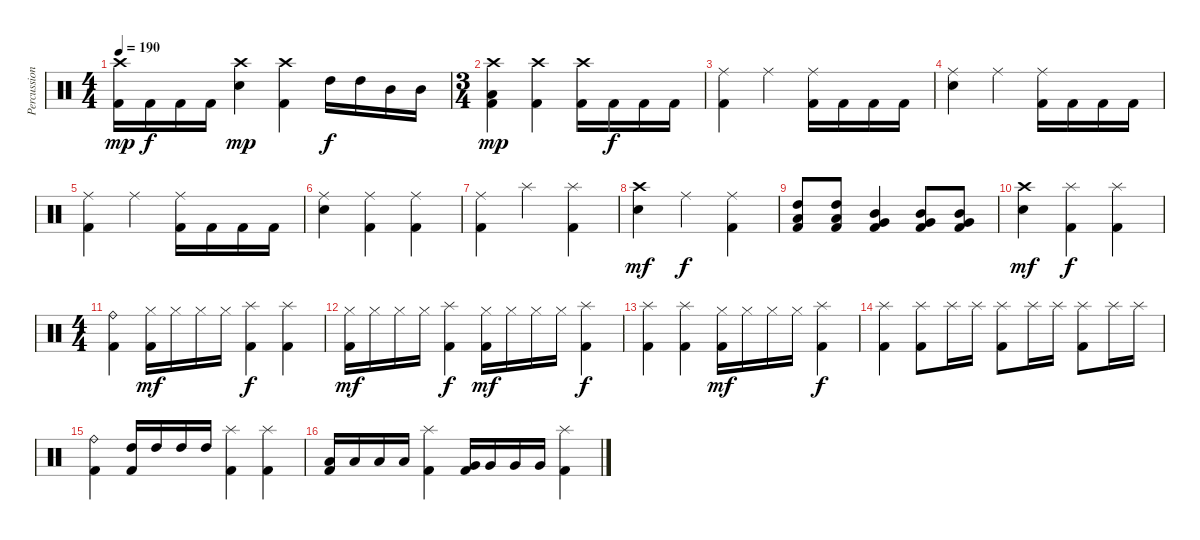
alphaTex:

\track ("Percussion" "Percussion") {instrument percussion}
\staff {score}
\articulation defaults
\ts (4 4)
\tempo 190
\clef neutral
\ks c
("Crash high (hit)" "Kick (hit) 2").16{dy mp} "Kick (hit) 2".16{dy f} "Kick (hit) 2".16 "Kick (hit) 2".16 ("Crash high (hit)" "Electric Snare (hit)").4{dy mp} ("Crash high (hit)" "Kick (hit) 2").4 "High Tom (hit)".16{dy f} "High Tom (hit)".16 "Mid Tom (hit)".16 "Mid Tom (hit)".16 |
\ts (3 4)
("Crash high (hit)" "Low Tom (hit)" "Kick (hit) 2").4{dy mp} ("Crash high (hit)" "Kick (hit) 2").4 ("Crash high (hit)" "Kick (hit) 2").16 "Kick (hit) 2".16{dy f} "Kick (hit) 2".16 "Kick (hit) 2".16 |
("Ride (middle)" "Kick (hit) 2").4 "Ride (middle)".4 ("Ride (middle)" "Kick (hit) 2").16 "Kick (hit) 2".16 "Kick (hit) 2".16 "Kick (hit) 2".16 |
("Ride (middle)" "Electric Snare (hit)").4 "Ride (middle)".4 ("Ride (middle)" "Kick (hit) 2").16 "Kick (hit) 2".16 "Kick (hit) 2".16 "Kick (hit) 2".16 |
("Ride (middle)" "Kick (hit) 2").4 "Ride (middle)".4 ("Ride (middle)" "Kick (hit) 2").16 "Kick (hit) 2".16 "Kick (hit) 2".16 "Kick (hit) 2".16 |
("Ride (middle)" "Electric Snare (hit)").4 ("Ride (middle)" "Kick (hit) 2").4 ("Ride (middle)" "Kick (hit) 2").4 |
("Ride (middle)" "Kick (hit) 2").4 "Splash (hit)".4 ("Splash (hit)" "Kick (hit) 2").4 |
("Crash high (hit)" "Electric Snare (hit)").4{dy mf} "Ride (middle)".4{dy f} ("Ride (middle)" "Kick (hit) 2").4 |
("High Tom (hit)" "Low Tom (hit)" "Kick (hit) 2").8 ("High Tom (hit)" "Low Tom (hit)" "Kick (hit) 2").8 ("Mid Tom (hit)" "Very Low Tom (hit)" "Kick (hit) 2").4 ("Mid Tom (hit)" "Very Low Tom (hit)" "Kick (hit) 2").8 ("Mid Tom (hit)" "Very Low Tom (hit)" "Kick (hit) 2").8 |
("Crash high (hit)" "Electric Snare (hit)").4{dy mf} ("Splash (hit)" "Kick (hit) 2").4{dy f} ("Splash (hit)" "Kick (hit) 2").4 |
\ts (4 4)
("Ride (bell)" "Kick (hit) 2").4 ("Hi-Hat (closed)" "Kick (hit) 2").16{dy mf} "Hi-Hat (closed)".16 "Hi-Hat (closed)".16 "Hi-Hat (closed)".16 ("Splash (hit)" "Kick (hit) 2").4{dy f} ("Splash (hit)" "Kick (hit) 2").4 |
("Hi-Hat (closed)" "Kick (hit) 2").16{dy mf} "Hi-Hat (closed)".16 "Hi-Hat (closed)".16 "Hi-Hat (closed)".16 ("Splash (hit)" "Kick (hit) 2").4{dy f} ("Hi-Hat (closed)" "Kick (hit) 2").16{dy mf} "Hi-Hat (closed)".16 "Hi-Hat (closed)".16 "Hi-Hat (closed)".16 ("Splash (hit)" "Kick (hit) 2").4{dy f} |
("Splash (hit)" "Kick (hit) 2").4 ("Splash (hit)" "Kick (hit) 2").4 ("Hi-Hat (closed)" "Kick (hit) 2").16{dy mf} "Hi-Hat (closed)".16 "Hi-Hat (closed)".16 "Hi-Hat (closed)".16 ("Splash (hit)" "Kick (hit) 2").4{dy f} |
("Splash (hit)" "Kick (hit) 2").4 ("Splash (hit)" "Kick (hit) 2").8 "Splash (hit)".16 "Splash (hit)".16 ("Splash (hit)" "Kick (hit) 2").8 "Splash (hit)".16 "Splash (hit)".16 ("Splash (hit)" "Kick (hit) 2").8 "Splash (hit)".16 "Splash (hit)".16 |
("Ride (bell)" "Kick (hit) 2").4 ("High Tom (hit)" "Kick (hit) 2").16 "High Tom (hit)".16 "High Tom (hit)".16 "High Tom (hit)".16 ("Splash (hit)" "Kick (hit) 2").4 ("Splash (hit)" "Kick (hit) 2").4 |
("Low Tom (hit)" "Kick (hit) 2").16 "Low Tom (hit)".16 "Low Tom (hit)".16 "Low Tom (hit)".16 ("Splash (hit)" "Kick (hit) 2").4 ("Very Low Tom (hit)" "Kick (hit) 2").16 "Very Low Tom (hit)".16 "Very Low Tom (hit)".16 "Very Low Tom (hit)".16 ("Splash (hit)" "Kick (hit) 2").4
